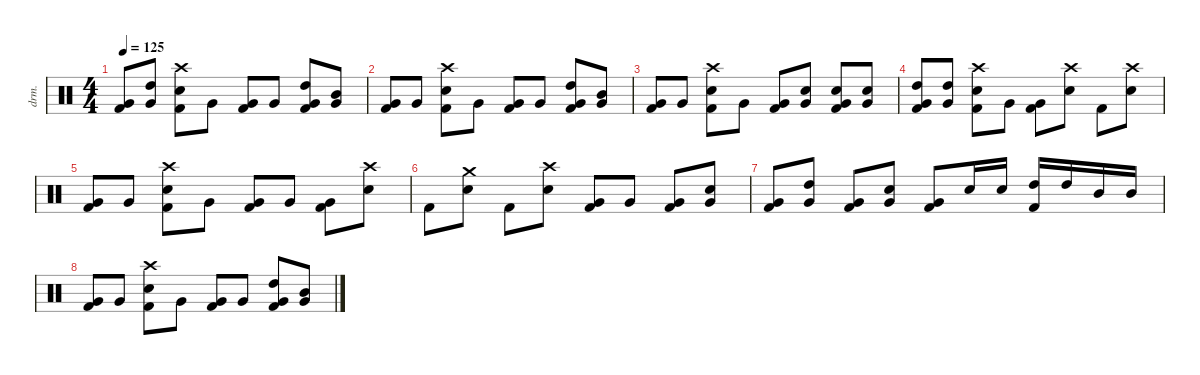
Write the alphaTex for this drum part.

\defaultSystemsLayout 4
\hideDynamics
\bracketExtendMode nobrackets
\otherSystemsTrackNameOrientation horizontal
\track ("Drums" "drm.") {defaultSystemsLayout 4 multiBarRest instrument percussion}
\staff
\articulation defaults
\ts (4 4)
\tempo 125
\clef neutral
\ks c
("Kick (hit) 2" "Very Low Tom (hit)").8{dy ff} ("Very Low Tom (hit)" "High Tom (hit)").8 ("Kick (hit) 2" "Snare (hit) 2" "Crash high (hit)").8{dy f} "Very Low Tom (hit)".8{dy ff} ("Very Low Tom (hit)" "Kick (hit) 2").8 "Very Low Tom (hit)".8 ("Very Low Tom (hit)" "Kick (hit) 2" "High Tom (hit)").8 ("Very Low Tom (hit)" "Mid Tom (hit)").8 |
("Kick (hit) 2" "Very Low Tom (hit)").8 "Very Low Tom (hit)".8 ("Kick (hit) 2" "Snare (hit) 2" "Crash high (hit)").8{dy f} "Very Low Tom (hit)".8{dy ff} ("Very Low Tom (hit)" "Kick (hit) 2").8 "Very Low Tom (hit)".8 ("Very Low Tom (hit)" "Kick (hit) 2" "High Tom (hit)").8 ("Very Low Tom (hit)" "Mid Tom (hit)").8 |
("Kick (hit) 2" "Very Low Tom (hit)").8 "Very Low Tom (hit)".8 ("Kick (hit) 2" "Snare (hit) 2" "Crash high (hit)").8{dy f} "Very Low Tom (hit)".8{dy ff} ("Very Low Tom (hit)" "Kick (hit) 2").8 ("Very Low Tom (hit)" "Snare (hit) 2").8{dy f} ("Very Low Tom (hit)" "Kick (hit) 2" "Snare (hit) 2").8 ("Very Low Tom (hit)" "Snare (hit) 2").8 |
("Kick (hit) 2" "Very Low Tom (hit)" "High Tom (hit)").8{dy ff} ("Very Low Tom (hit)" "High Tom (hit)").8 ("Kick (hit) 2" "Snare (hit) 2" "Crash high (hit)").8{dy f} "Very Low Tom (hit)".8{dy ff} ("Very Low Tom (hit)" "Kick (hit) 2").8 ("Snare (hit) 2" "Crash high (hit)").8{dy f} "Kick (hit) 2".8{dy ff} ("Snare (hit) 2" "Crash high (hit)").8{dy f} |
("Kick (hit) 2" "Very Low Tom (hit)").8{dy ff} "Very Low Tom (hit)".8 ("Kick (hit) 2" "Snare (hit) 2" "Crash high (hit)").8{dy f} "Very Low Tom (hit)".8{dy ff} ("Kick (hit) 2" "Very Low Tom (hit)").8 "Very Low Tom (hit)".8 ("Very Low Tom (hit)" "Kick (hit) 2").8 ("Snare (hit) 2" "Crash high (hit)").8{dy f} |
"Kick (hit) 2".8 ("Crash medium (hit)" "Snare (hit) 2").8 "Kick (hit) 2".8 ("Snare (hit) 2" "Crash high (hit)").8 ("Kick (hit) 2" "Very Low Tom (hit)").8{dy ff} "Very Low Tom (hit)".8 ("Kick (hit) 2" "Very Low Tom (hit)").8 ("Very Low Tom (hit)" "Snare (hit) 2").8{dy f} |
("Kick (hit) 2" "Very Low Tom (hit)").8{dy ff} ("Very Low Tom (hit)" "High Tom (hit)").8 ("Kick (hit) 2" "Very Low Tom (hit)").8 ("Very Low Tom (hit)" "Snare (hit) 2").8{dy f} ("Kick (hit) 2" "Very Low Tom (hit)").8{dy ff} "Snare (hit) 2".16{dy f} "Snare (hit) 2".16 ("High Tom (hit)" "Kick (hit) 2").16{dy ff} "High Tom (hit)".16{dy fff} "Mid Tom (hit)".16 "Mid Tom (hit)".16 |
("Very Low Tom (hit)" "Kick (hit) 2").8{dy ff} "Very Low Tom (hit)".8 ("Kick (hit) 2" "Snare (hit) 2" "Crash high (hit)").8{dy f} "Very Low Tom (hit)".8{dy ff} ("Kick (hit) 2" "Very Low Tom (hit)").8 "Very Low Tom (hit)".8 ("Kick (hit) 2" "Very Low Tom (hit)" "High Tom (hit)").8 ("Mid Tom (hit)" "Very Low Tom (hit)").8
